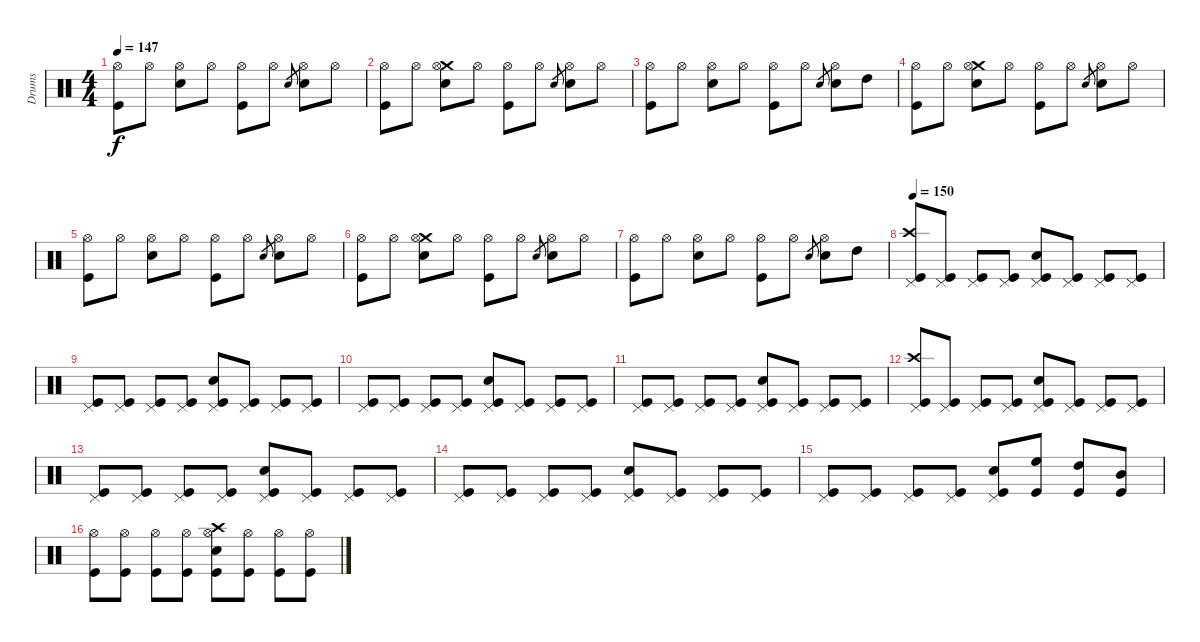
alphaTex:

\track ("Drums" "Drums") {instrument percussion}
\staff {score}
\articulation defaults
\ts (4 4)
\tempo 147
\clef neutral
\ks c
("Hi-Hat (open)" "Kick (hit)").8{dy f} "Hi-Hat (open)".8 ("Hi-Hat (open)" "Snare (hit) 2").8 "Hi-Hat (open)".8 ("Hi-Hat (open)" "Kick (hit)").8 "Hi-Hat (open)".8 "Snare (hit) 2".8{gr} ("Hi-Hat (open)" "Snare (hit) 2").8 "Hi-Hat (open)".8 |
("Hi-Hat (open)" "Kick (hit)").8 "Hi-Hat (open)".8 ("Crash medium (hit)" "Hi-Hat (open)" "Snare (hit) 2").8 "Hi-Hat (open)".8 ("Hi-Hat (open)" "Kick (hit)").8 "Hi-Hat (open)".8 "Snare (hit) 2".8{gr} ("Hi-Hat (open)" "Snare (hit) 2").8 "Hi-Hat (open)".8 |
("Hi-Hat (open)" "Kick (hit)").8 "Hi-Hat (open)".8 ("Hi-Hat (open)" "Snare (hit) 2").8 "Hi-Hat (open)".8 ("Hi-Hat (open)" "Kick (hit)").8 "Hi-Hat (open)".8 "Snare (hit) 2".8{gr} ("Hi-Hat (open)" "Snare (hit) 2").8 "High Tom (hit)".8 |
("Hi-Hat (open)" "Kick (hit)").8 "Hi-Hat (open)".8 ("Crash medium (hit)" "Hi-Hat (open)" "Snare (hit) 2").8 "Hi-Hat (open)".8 ("Hi-Hat (open)" "Kick (hit)").8 "Hi-Hat (open)".8 "Snare (hit) 2".8{gr} ("Hi-Hat (open)" "Snare (hit) 2").8 "Hi-Hat (open)".8 |
("Hi-Hat (open)" "Kick (hit)").8 "Hi-Hat (open)".8 ("Hi-Hat (open)" "Snare (hit) 2").8 "Hi-Hat (open)".8 ("Hi-Hat (open)" "Kick (hit)").8 "Hi-Hat (open)".8 "Snare (hit) 2".8{gr} ("Hi-Hat (open)" "Snare (hit) 2").8 "Hi-Hat (open)".8 |
("Hi-Hat (open)" "Kick (hit)").8 "Hi-Hat (open)".8 ("Crash medium (hit)" "Hi-Hat (open)" "Snare (hit) 2").8 "Hi-Hat (open)".8 ("Hi-Hat (open)" "Kick (hit)").8 "Hi-Hat (open)".8 "Snare (hit) 2".8{gr} ("Hi-Hat (open)" "Snare (hit) 2").8 "Hi-Hat (open)".8 |
("Hi-Hat (open)" "Kick (hit)").8 "Hi-Hat (open)".8 ("Hi-Hat (open)" "Snare (hit) 2").8 "Hi-Hat (open)".8 ("Hi-Hat (open)" "Kick (hit)").8 "Hi-Hat (open)".8 "Snare (hit) 2".8{gr} ("Hi-Hat (open)" "Snare (hit) 2").8 "High Tom (hit)".8 |
\tempo 150
("Crash high (hit)" "Pedal Hi-Hat (hit)" "Kick (hit)").8 ("Pedal Hi-Hat (hit)" "Kick (hit)").8 ("Pedal Hi-Hat (hit)" "Kick (hit)").8 ("Pedal Hi-Hat (hit)" "Kick (hit)").8 ("Pedal Hi-Hat (hit)" "Snare (hit) 2" "Kick (hit)").8 ("Pedal Hi-Hat (hit)" "Kick (hit)").8 ("Pedal Hi-Hat (hit)" "Kick (hit)").8 ("Pedal Hi-Hat (hit)" "Kick (hit)").8 |
("Pedal Hi-Hat (hit)" "Kick (hit)").8 ("Pedal Hi-Hat (hit)" "Kick (hit)").8 ("Pedal Hi-Hat (hit)" "Kick (hit)").8 ("Pedal Hi-Hat (hit)" "Kick (hit)").8 ("Pedal Hi-Hat (hit)" "Snare (hit) 2" "Kick (hit)").8 ("Pedal Hi-Hat (hit)" "Kick (hit)").8 ("Pedal Hi-Hat (hit)" "Kick (hit)").8 ("Pedal Hi-Hat (hit)" "Kick (hit)").8 |
("Pedal Hi-Hat (hit)" "Kick (hit)").8 ("Pedal Hi-Hat (hit)" "Kick (hit)").8 ("Pedal Hi-Hat (hit)" "Kick (hit)").8 ("Pedal Hi-Hat (hit)" "Kick (hit)").8 ("Pedal Hi-Hat (hit)" "Snare (hit) 2" "Kick (hit)").8 ("Pedal Hi-Hat (hit)" "Kick (hit)").8 ("Pedal Hi-Hat (hit)" "Kick (hit)").8 ("Pedal Hi-Hat (hit)" "Kick (hit)").8 |
("Pedal Hi-Hat (hit)" "Kick (hit)").8 ("Pedal Hi-Hat (hit)" "Kick (hit)").8 ("Pedal Hi-Hat (hit)" "Kick (hit)").8 ("Pedal Hi-Hat (hit)" "Kick (hit)").8 ("Pedal Hi-Hat (hit)" "Snare (hit) 2" "Kick (hit)").8 ("Pedal Hi-Hat (hit)" "Kick (hit)").8 ("Pedal Hi-Hat (hit)" "Kick (hit)").8 ("Pedal Hi-Hat (hit)" "Kick (hit)").8 |
("Crash high (hit)" "Pedal Hi-Hat (hit)" "Kick (hit)").8 ("Pedal Hi-Hat (hit)" "Kick (hit)").8 ("Pedal Hi-Hat (hit)" "Kick (hit)").8 ("Pedal Hi-Hat (hit)" "Kick (hit)").8 ("Pedal Hi-Hat (hit)" "Snare (hit) 2" "Kick (hit)").8 ("Pedal Hi-Hat (hit)" "Kick (hit)").8 ("Pedal Hi-Hat (hit)" "Kick (hit)").8 ("Pedal Hi-Hat (hit)" "Kick (hit)").8 |
("Pedal Hi-Hat (hit)" "Kick (hit)").8 ("Pedal Hi-Hat (hit)" "Kick (hit)").8 ("Pedal Hi-Hat (hit)" "Kick (hit)").8 ("Pedal Hi-Hat (hit)" "Kick (hit)").8 ("Pedal Hi-Hat (hit)" "Snare (hit) 2" "Kick (hit)").8 ("Pedal Hi-Hat (hit)" "Kick (hit)").8 ("Pedal Hi-Hat (hit)" "Kick (hit)").8 ("Pedal Hi-Hat (hit)" "Kick (hit)").8 |
("Pedal Hi-Hat (hit)" "Kick (hit)").8 ("Pedal Hi-Hat (hit)" "Kick (hit)").8 ("Pedal Hi-Hat (hit)" "Kick (hit)").8 ("Pedal Hi-Hat (hit)" "Kick (hit)").8 ("Pedal Hi-Hat (hit)" "Snare (hit) 2" "Kick (hit)").8 ("Pedal Hi-Hat (hit)" "Kick (hit)").8 ("Pedal Hi-Hat (hit)" "Kick (hit)").8 ("Pedal Hi-Hat (hit)" "Kick (hit)").8 |
("Pedal Hi-Hat (hit)" "Kick (hit)").8 ("Pedal Hi-Hat (hit)" "Kick (hit)").8 ("Pedal Hi-Hat (hit)" "Kick (hit)").8 ("Pedal Hi-Hat (hit)" "Kick (hit)").8 ("Pedal Hi-Hat (hit)" "Snare (hit) 2" "Kick (hit)").8 ("High Floor Tom (hit)" "Kick (hit)").8 ("High Tom (hit)" "Kick (hit)").8 ("Mid Tom (hit)" "Kick (hit)").8 |
("Hi-Hat (open)" "Kick (hit)").8 ("Hi-Hat (open)" "Kick (hit)").8 ("Hi-Hat (open)" "Kick (hit)").8 ("Hi-Hat (open)" "Kick (hit)").8 ("Crash high (hit)" "Hi-Hat (open)" "Snare (hit) 2" "Kick (hit)").8 ("Hi-Hat (open)" "Kick (hit)").8 ("Hi-Hat (open)" "Kick (hit)").8 ("Hi-Hat (open)" "Kick (hit)").8
